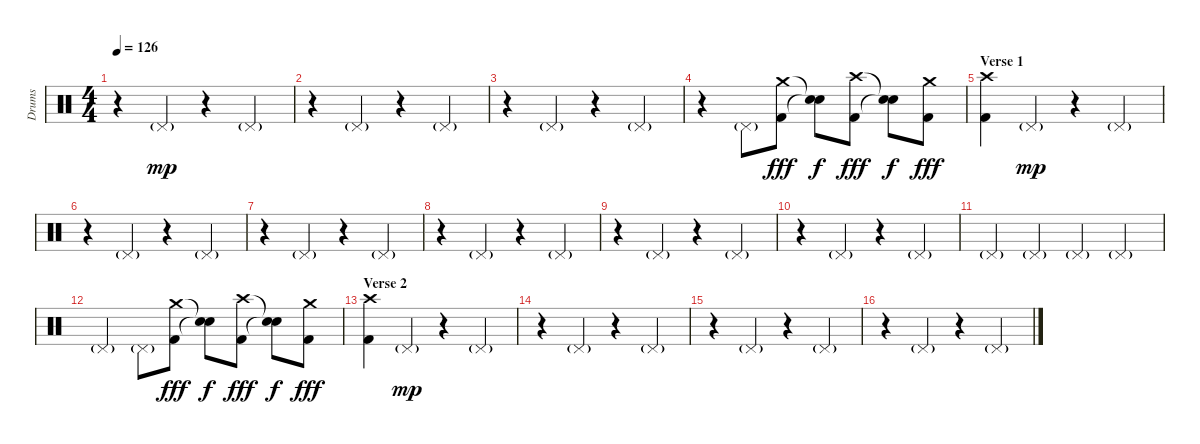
\track ("Drums" "Drums") {instrument percussion}
\staff {score}
\articulation defaults
\ts (4 4)
\tempo 126
\clef neutral
\ks c
r.4{dy mp} "Pedal Hi-Hat (hit)"{g}.4 r.4 "Pedal Hi-Hat (hit)"{g}.4 |
r.4 "Pedal Hi-Hat (hit)"{g}.4 r.4 "Pedal Hi-Hat (hit)"{g}.4 |
r.4 "Pedal Hi-Hat (hit)"{g}.4 r.4 "Pedal Hi-Hat (hit)"{g}.4 |
r.4 "Pedal Hi-Hat (hit)"{g}.8 ("Crash medium (hit)" "Kick (hit) 2").8{dy fff} ("Snare (hit)"{t} "Snare (hit)"{t}).8{dy f} ("Crash high (hit)" "Kick (hit) 2").8{dy fff} ("Snare (hit)"{t} "Snare (hit)"{t}).8{dy f} ("Crash medium (hit)" "Kick (hit) 2").8{dy fff} |
\section ("" "Verse 1")
("Crash high (hit)" "Kick (hit) 2").4 "Pedal Hi-Hat (hit)"{g}.4{dy mp} r.4 "Pedal Hi-Hat (hit)"{g}.4 |
r.4 "Pedal Hi-Hat (hit)"{g}.4 r.4 "Pedal Hi-Hat (hit)"{g}.4 |
r.4 "Pedal Hi-Hat (hit)"{g}.4 r.4 "Pedal Hi-Hat (hit)"{g}.4 |
r.4 "Pedal Hi-Hat (hit)"{g}.4 r.4 "Pedal Hi-Hat (hit)"{g}.4 |
r.4 "Pedal Hi-Hat (hit)"{g}.4 r.4 "Pedal Hi-Hat (hit)"{g}.4 |
r.4 "Pedal Hi-Hat (hit)"{g}.4 r.4 "Pedal Hi-Hat (hit)"{g}.4 |
"Pedal Hi-Hat (hit)"{g}.4 "Pedal Hi-Hat (hit)"{g}.4 "Pedal Hi-Hat (hit)"{g}.4 "Pedal Hi-Hat (hit)"{g}.4 |
"Pedal Hi-Hat (hit)"{g}.4 "Pedal Hi-Hat (hit)"{g}.8 ("Crash medium (hit)" "Kick (hit) 2").8{dy fff} ("Snare (hit)"{t} "Snare (hit)"{t}).8{dy f} ("Crash high (hit)" "Kick (hit) 2").8{dy fff} ("Snare (hit)"{t} "Snare (hit)"{t}).8{dy f} ("Crash medium (hit)" "Kick (hit) 2").8{dy fff} |
\section ("" "Verse 2")
("Crash high (hit)" "Kick (hit) 2").4 "Pedal Hi-Hat (hit)"{g}.4{dy mp} r.4 "Pedal Hi-Hat (hit)"{g}.4 |
r.4 "Pedal Hi-Hat (hit)"{g}.4 r.4 "Pedal Hi-Hat (hit)"{g}.4 |
r.4 "Pedal Hi-Hat (hit)"{g}.4 r.4 "Pedal Hi-Hat (hit)"{g}.4 |
r.4 "Pedal Hi-Hat (hit)"{g}.4 r.4 "Pedal Hi-Hat (hit)"{g}.4
